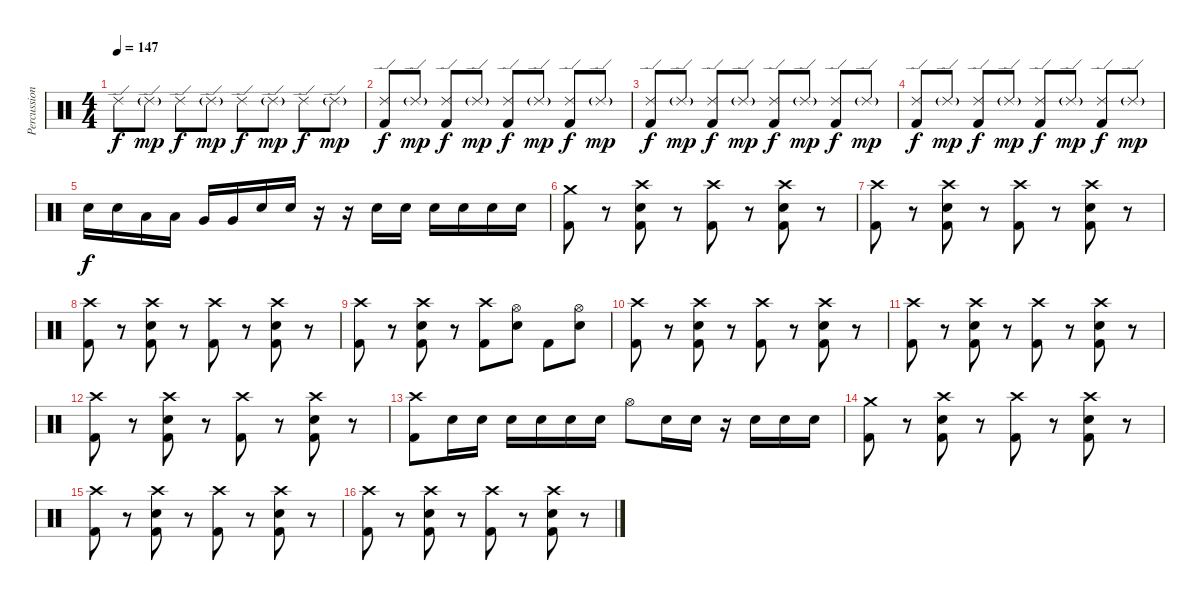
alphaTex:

\track ("Percussion" "Percussion") {instrument percussion}
\staff {score}
\articulation defaults
\ts (4 4)
\tempo 147
\clef neutral
\ks c "Ride (edge) 2".8{dy f} "Ride (edge) 2"{g}.8{dy mp} "Ride (edge) 2".8{dy f} "Ride (edge) 2"{g}.8{dy mp} "Ride (edge) 2".8{dy f} "Ride (edge) 2"{g}.8{dy mp} "Ride (edge) 2".8{dy f} "Ride (edge) 2"{g}.8{dy mp}
|
("Ride (edge) 2" "Kick (hit) 2").8{dy f} "Ride (edge) 2"{g}.8{dy mp} ("Ride (edge) 2" "Kick (hit) 2").8{dy f} "Ride (edge) 2"{g}.8{dy mp} ("Ride (edge) 2" "Kick (hit) 2").8{dy f} "Ride (edge) 2"{g}.8{dy mp} ("Ride (edge) 2" "Kick (hit) 2").8{dy f} "Ride (edge) 2"{g}.8{dy mp} |
("Ride (edge) 2" "Kick (hit) 2").8{dy f} "Ride (edge) 2"{g}.8{dy mp} ("Ride (edge) 2" "Kick (hit) 2").8{dy f} "Ride (edge) 2"{g}.8{dy mp} ("Ride (edge) 2" "Kick (hit) 2").8{dy f} "Ride (edge) 2"{g}.8{dy mp} ("Ride (edge) 2" "Kick (hit) 2").8{dy f} "Ride (edge) 2"{g}.8{dy mp} |
("Ride (edge) 2" "Kick (hit) 2").8{dy f} "Ride (edge) 2"{g}.8{dy mp} ("Ride (edge) 2" "Kick (hit) 2").8{dy f} "Ride (edge) 2"{g}.8{dy mp} ("Ride (edge) 2" "Kick (hit) 2").8{dy f} "Ride (edge) 2"{g}.8{dy mp} ("Ride (edge) 2" "Kick (hit) 2").8{dy f} "Ride (edge) 2"{g}.8{dy mp} |
"Electric Snare (hit)".16{dy f} "Electric Snare (hit)".16 "Low Tom (hit)".16 "Low Tom (hit)".16 "Very Low Tom (hit)".16 "Very Low Tom (hit)".16 "Electric Snare (hit)".16 "Electric Snare (hit)".16 r.16 r.16 "Electric Snare (hit)".16 "Electric Snare (hit)".16 "Electric Snare (hit)".16 "Electric Snare (hit)".16 "Electric Snare (hit)".16 "Electric Snare (hit)".16 |
("Crash medium (hit)" "Kick (hit) 2").8 r.8 ("Crash high (hit)" "Kick (hit) 2" "Electric Snare (hit)").8 r.8 ("Crash high (hit)" "Kick (hit) 2").8 r.8 ("Crash high (hit)" "Kick (hit) 2" "Electric Snare (hit)").8 r.8 |
("Crash high (hit)" "Kick (hit) 2").8 r.8 ("Crash high (hit)" "Kick (hit) 2" "Electric Snare (hit)").8 r.8 ("Crash high (hit)" "Kick (hit) 2").8 r.8 ("Crash high (hit)" "Kick (hit) 2" "Electric Snare (hit)").8 r.8 |
("Crash high (hit)" "Kick (hit) 2").8 r.8 ("Crash high (hit)" "Kick (hit) 2" "Electric Snare (hit)").8 r.8 ("Crash high (hit)" "Kick (hit) 2").8 r.8 ("Crash high (hit)" "Kick (hit) 2" "Electric Snare (hit)").8 r.8 |
("Crash high (hit)" "Kick (hit) 2").8 r.8 ("Crash high (hit)" "Kick (hit) 2" "Electric Snare (hit)").8 r.8 ("Crash high (hit)" "Kick (hit) 2").8 ("Hi-Hat (open)" "Electric Snare (hit)").8 "Kick (hit) 2".8 ("Hi-Hat (open)" "Electric Snare (hit)").8 |
("Crash high (hit)" "Kick (hit) 2").8 r.8 ("Crash high (hit)" "Kick (hit) 2" "Electric Snare (hit)").8 r.8 ("Crash high (hit)" "Kick (hit) 2").8 r.8 ("Crash high (hit)" "Kick (hit) 2" "Electric Snare (hit)").8 r.8 |
("Crash high (hit)" "Kick (hit) 2").8 r.8 ("Crash high (hit)" "Kick (hit) 2" "Electric Snare (hit)").8 r.8 ("Crash high (hit)" "Kick (hit) 2").8 r.8 ("Crash high (hit)" "Kick (hit) 2" "Electric Snare (hit)").8 r.8 |
("Crash high (hit)" "Kick (hit) 2").8 r.8 ("Crash high (hit)" "Kick (hit) 2" "Electric Snare (hit)").8 r.8 ("Crash high (hit)" "Kick (hit) 2").8 r.8 ("Crash high (hit)" "Kick (hit) 2" "Electric Snare (hit)").8 r.8 |
("Crash high (hit)" "Kick (hit) 2").8 "Electric Snare (hit)".16 "Electric Snare (hit)".16 "Electric Snare (hit)".16 "Electric Snare (hit)".16 "Electric Snare (hit)".16 "Electric Snare (hit)".16 "Hi-Hat (open)".8 "Electric Snare (hit)".16 "Electric Snare (hit)".16 r.16 "Electric Snare (hit)".16 "Electric Snare (hit)".16 "Electric Snare (hit)".16 |
("Crash medium (hit)" "Kick (hit) 2").8 r.8 ("Crash high (hit)" "Kick (hit) 2" "Electric Snare (hit)").8 r.8 ("Crash high (hit)" "Kick (hit) 2").8 r.8 ("Crash high (hit)" "Kick (hit) 2" "Electric Snare (hit)").8 r.8 |
("Crash high (hit)" "Kick (hit) 2").8 r.8 ("Crash high (hit)" "Kick (hit) 2" "Electric Snare (hit)").8 r.8 ("Crash high (hit)" "Kick (hit) 2").8 r.8 ("Crash high (hit)" "Kick (hit) 2" "Electric Snare (hit)").8 r.8 |
("Crash high (hit)" "Kick (hit) 2").8 r.8 ("Crash high (hit)" "Kick (hit) 2" "Electric Snare (hit)").8 r.8 ("Crash high (hit)" "Kick (hit) 2").8 r.8 ("Crash high (hit)" "Kick (hit) 2" "Electric Snare (hit)").8 r.8
